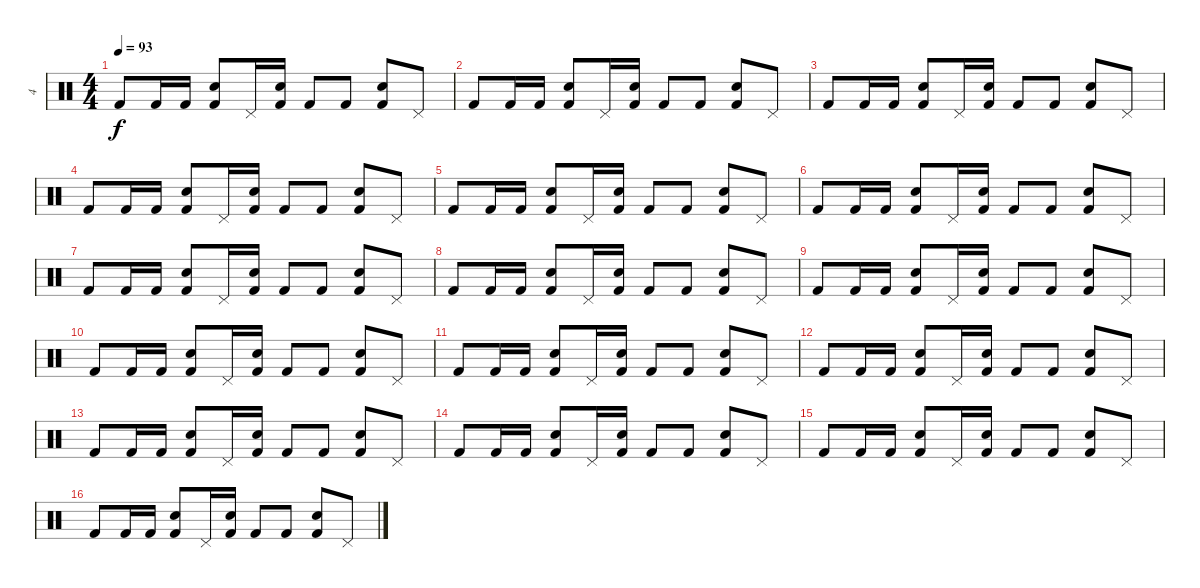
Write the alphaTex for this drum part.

\track ("4" "4") {instrument percussion}
\staff {score}
\articulation defaults
\ts (4 4)
\tempo 93
\clef neutral
\ks c "Kick (hit) 2".8{dy f} "Kick (hit) 2".16 "Kick (hit) 2".16
("Kick (hit) 2" "Electric Snare (hit)").8 "Pedal Hi-Hat (hit)".16 ("Kick (hit) 2" "Electric Snare (hit)").16 "Kick (hit) 2".8 "Kick (hit) 2".8 ("Kick (hit) 2" "Electric Snare (hit)").8 "Pedal Hi-Hat (hit)".8 |
"Kick (hit) 2".8 "Kick (hit) 2".16 "Kick (hit) 2".16 ("Kick (hit) 2" "Electric Snare (hit)").8 "Pedal Hi-Hat (hit)".16 ("Kick (hit) 2" "Electric Snare (hit)").16 "Kick (hit) 2".8 "Kick (hit) 2".8 ("Kick (hit) 2" "Electric Snare (hit)").8 "Pedal Hi-Hat (hit)".8 |
"Kick (hit) 2".8 "Kick (hit) 2".16 "Kick (hit) 2".16 ("Kick (hit) 2" "Electric Snare (hit)").8 "Pedal Hi-Hat (hit)".16 ("Kick (hit) 2" "Electric Snare (hit)").16 "Kick (hit) 2".8 "Kick (hit) 2".8 ("Kick (hit) 2" "Electric Snare (hit)").8 "Pedal Hi-Hat (hit)".8 |
"Kick (hit) 2".8 "Kick (hit) 2".16 "Kick (hit) 2".16 ("Kick (hit) 2" "Electric Snare (hit)").8 "Pedal Hi-Hat (hit)".16 ("Kick (hit) 2" "Electric Snare (hit)").16 "Kick (hit) 2".8 "Kick (hit) 2".8 ("Kick (hit) 2" "Electric Snare (hit)").8 "Pedal Hi-Hat (hit)".8 |
"Kick (hit) 2".8 "Kick (hit) 2".16 "Kick (hit) 2".16 ("Kick (hit) 2" "Electric Snare (hit)").8 "Pedal Hi-Hat (hit)".16 ("Kick (hit) 2" "Electric Snare (hit)").16 "Kick (hit) 2".8 "Kick (hit) 2".8 ("Kick (hit) 2" "Electric Snare (hit)").8 "Pedal Hi-Hat (hit)".8 |
"Kick (hit) 2".8 "Kick (hit) 2".16 "Kick (hit) 2".16 ("Kick (hit) 2" "Electric Snare (hit)").8 "Pedal Hi-Hat (hit)".16 ("Kick (hit) 2" "Electric Snare (hit)").16 "Kick (hit) 2".8 "Kick (hit) 2".8 ("Kick (hit) 2" "Electric Snare (hit)").8 "Pedal Hi-Hat (hit)".8 |
"Kick (hit) 2".8 "Kick (hit) 2".16 "Kick (hit) 2".16 ("Kick (hit) 2" "Electric Snare (hit)").8 "Pedal Hi-Hat (hit)".16 ("Kick (hit) 2" "Electric Snare (hit)").16 "Kick (hit) 2".8 "Kick (hit) 2".8 ("Kick (hit) 2" "Electric Snare (hit)").8 "Pedal Hi-Hat (hit)".8 |
"Kick (hit) 2".8 "Kick (hit) 2".16 "Kick (hit) 2".16 ("Kick (hit) 2" "Electric Snare (hit)").8 "Pedal Hi-Hat (hit)".16 ("Kick (hit) 2" "Electric Snare (hit)").16 "Kick (hit) 2".8 "Kick (hit) 2".8 ("Kick (hit) 2" "Electric Snare (hit)").8 "Pedal Hi-Hat (hit)".8 |
"Kick (hit) 2".8 "Kick (hit) 2".16 "Kick (hit) 2".16 ("Kick (hit) 2" "Electric Snare (hit)").8 "Pedal Hi-Hat (hit)".16 ("Kick (hit) 2" "Electric Snare (hit)").16 "Kick (hit) 2".8 "Kick (hit) 2".8 ("Kick (hit) 2" "Electric Snare (hit)").8 "Pedal Hi-Hat (hit)".8 |
"Kick (hit) 2".8 "Kick (hit) 2".16 "Kick (hit) 2".16 ("Kick (hit) 2" "Electric Snare (hit)").8 "Pedal Hi-Hat (hit)".16 ("Kick (hit) 2" "Electric Snare (hit)").16 "Kick (hit) 2".8 "Kick (hit) 2".8 ("Kick (hit) 2" "Electric Snare (hit)").8 "Pedal Hi-Hat (hit)".8 |
"Kick (hit) 2".8 "Kick (hit) 2".16 "Kick (hit) 2".16 ("Kick (hit) 2" "Electric Snare (hit)").8 "Pedal Hi-Hat (hit)".16 ("Kick (hit) 2" "Electric Snare (hit)").16 "Kick (hit) 2".8 "Kick (hit) 2".8 ("Kick (hit) 2" "Electric Snare (hit)").8 "Pedal Hi-Hat (hit)".8 |
"Kick (hit) 2".8 "Kick (hit) 2".16 "Kick (hit) 2".16 ("Kick (hit) 2" "Electric Snare (hit)").8 "Pedal Hi-Hat (hit)".16 ("Kick (hit) 2" "Electric Snare (hit)").16 "Kick (hit) 2".8 "Kick (hit) 2".8 ("Kick (hit) 2" "Electric Snare (hit)").8 "Pedal Hi-Hat (hit)".8 |
"Kick (hit) 2".8 "Kick (hit) 2".16 "Kick (hit) 2".16 ("Kick (hit) 2" "Electric Snare (hit)").8 "Pedal Hi-Hat (hit)".16 ("Kick (hit) 2" "Electric Snare (hit)").16 "Kick (hit) 2".8 "Kick (hit) 2".8 ("Kick (hit) 2" "Electric Snare (hit)").8 "Pedal Hi-Hat (hit)".8 |
"Kick (hit) 2".8 "Kick (hit) 2".16 "Kick (hit) 2".16 ("Kick (hit) 2" "Electric Snare (hit)").8 "Pedal Hi-Hat (hit)".16 ("Kick (hit) 2" "Electric Snare (hit)").16 "Kick (hit) 2".8 "Kick (hit) 2".8 ("Kick (hit) 2" "Electric Snare (hit)").8 "Pedal Hi-Hat (hit)".8 |
"Kick (hit) 2".8 "Kick (hit) 2".16 "Kick (hit) 2".16 ("Kick (hit) 2" "Electric Snare (hit)").8 "Pedal Hi-Hat (hit)".16 ("Kick (hit) 2" "Electric Snare (hit)").16 "Kick (hit) 2".8 "Kick (hit) 2".8 ("Kick (hit) 2" "Electric Snare (hit)").8 "Pedal Hi-Hat (hit)".8 |
"Kick (hit) 2".8 "Kick (hit) 2".16 "Kick (hit) 2".16 ("Kick (hit) 2" "Electric Snare (hit)").8 "Pedal Hi-Hat (hit)".16 ("Kick (hit) 2" "Electric Snare (hit)").16 "Kick (hit) 2".8 "Kick (hit) 2".8 ("Kick (hit) 2" "Electric Snare (hit)").8 "Pedal Hi-Hat (hit)".8
